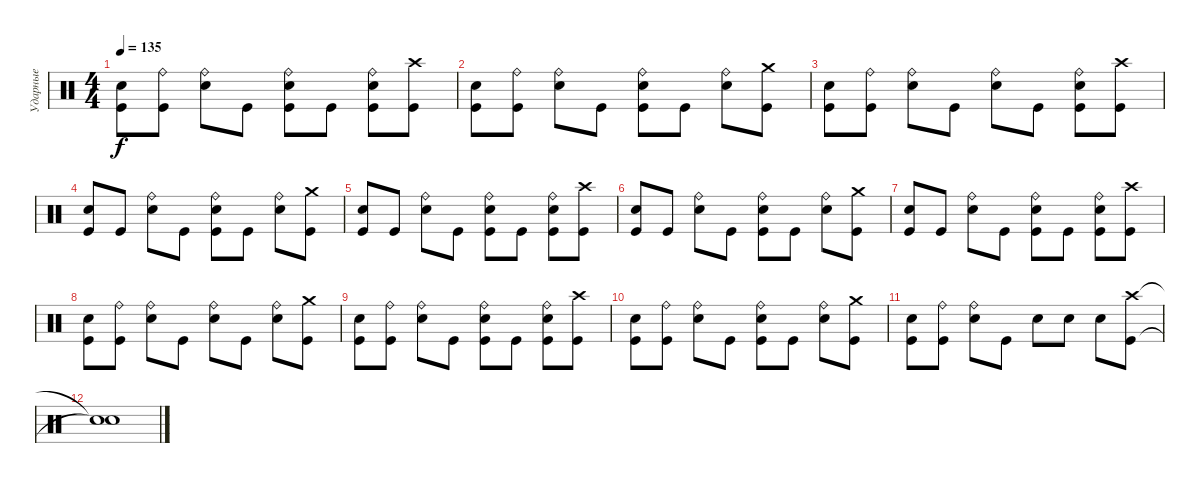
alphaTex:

\track ("Ударные" "Ударные") {instrument percussion}
\staff {score}
\articulation defaults
\ts (4 4)
\tempo 135
\clef neutral
\ks c
("Electric Snare (hit)" "Kick (hit)").8{dy f} ("Ride (bell)" "Kick (hit)").8 ("Ride (bell)" "Electric Snare (hit)").8 "Kick (hit)".8 ("Ride (bell)" "Electric Snare (hit)" "Kick (hit)").8 "Kick (hit)".8 ("Ride (bell)" "Electric Snare (hit)" "Kick (hit)").8 ("Crash high (hit)" "Kick (hit)").8 |
("Electric Snare (hit)" "Kick (hit)").8 ("Ride (bell)" "Kick (hit)").8 ("Ride (bell)" "Electric Snare (hit)").8 "Kick (hit)".8 ("Ride (bell)" "Electric Snare (hit)" "Kick (hit)").8 "Kick (hit)".8 ("Ride (bell)" "Electric Snare (hit)").8 ("Crash medium (hit)" "Kick (hit)").8 |
("Electric Snare (hit)" "Kick (hit)").8 ("Ride (bell)" "Kick (hit)").8 ("Ride (bell)" "Electric Snare (hit)").8 "Kick (hit)".8 ("Ride (bell)" "Electric Snare (hit)").8 "Kick (hit)".8 ("Ride (bell)" "Electric Snare (hit)" "Kick (hit)").8 ("Crash high (hit)" "Kick (hit)").8 |
("Electric Snare (hit)" "Kick (hit)").8 "Kick (hit)".8 ("Ride (bell)" "Electric Snare (hit)").8 "Kick (hit)".8 ("Ride (bell)" "Electric Snare (hit)" "Kick (hit)").8 "Kick (hit)".8 ("Ride (bell)" "Electric Snare (hit)").8 ("Crash medium (hit)" "Kick (hit)").8 |
("Electric Snare (hit)" "Kick (hit)").8 "Kick (hit)".8 ("Ride (bell)" "Electric Snare (hit)").8 "Kick (hit)".8 ("Ride (bell)" "Electric Snare (hit)" "Kick (hit)").8 "Kick (hit)".8 ("Ride (bell)" "Electric Snare (hit)" "Kick (hit)").8 ("Crash high (hit)" "Kick (hit)").8 |
("Electric Snare (hit)" "Kick (hit)").8 "Kick (hit)".8 ("Ride (bell)" "Electric Snare (hit)").8 "Kick (hit)".8 ("Ride (bell)" "Electric Snare (hit)" "Kick (hit)").8 "Kick (hit)".8 ("Ride (bell)" "Electric Snare (hit)").8 ("Crash medium (hit)" "Kick (hit)").8 |
("Electric Snare (hit)" "Kick (hit)").8 "Kick (hit)".8 ("Ride (bell)" "Electric Snare (hit)").8 "Kick (hit)".8 ("Ride (bell)" "Electric Snare (hit)" "Kick (hit)").8 "Kick (hit)".8 ("Ride (bell)" "Electric Snare (hit)" "Kick (hit)").8 ("Crash high (hit)" "Kick (hit)").8 |
("Electric Snare (hit)" "Kick (hit)").8 ("Ride (bell)" "Kick (hit)").8 ("Ride (bell)" "Electric Snare (hit)").8 "Kick (hit)".8 ("Ride (bell)" "Electric Snare (hit)").8 "Kick (hit)".8 ("Ride (bell)" "Electric Snare (hit)").8 ("Crash medium (hit)" "Kick (hit)").8 |
("Electric Snare (hit)" "Kick (hit)").8 ("Ride (bell)" "Kick (hit)").8 ("Ride (bell)" "Electric Snare (hit)").8 "Kick (hit)".8 ("Ride (bell)" "Electric Snare (hit)" "Kick (hit)").8 "Kick (hit)".8 ("Ride (bell)" "Electric Snare (hit)" "Kick (hit)").8 ("Crash high (hit)" "Kick (hit)").8 |
("Electric Snare (hit)" "Kick (hit)").8 ("Ride (bell)" "Kick (hit)").8 ("Ride (bell)" "Electric Snare (hit)").8 "Kick (hit)".8 ("Ride (bell)" "Electric Snare (hit)" "Kick (hit)").8 "Kick (hit)".8 ("Ride (bell)" "Electric Snare (hit)").8 ("Crash medium (hit)" "Kick (hit)").8 |
("Electric Snare (hit)" "Kick (hit)").8 ("Ride (bell)" "Kick (hit)").8 ("Ride (bell)" "Electric Snare (hit)").8 "Kick (hit)".8 "Electric Snare (hit)".8 "Electric Snare (hit)".8 "Electric Snare (hit)".8 ("Crash high (hit)" "Kick (hit)").8 |
("Snare (hit)"{t} "Snare (hit)"{t}).1
